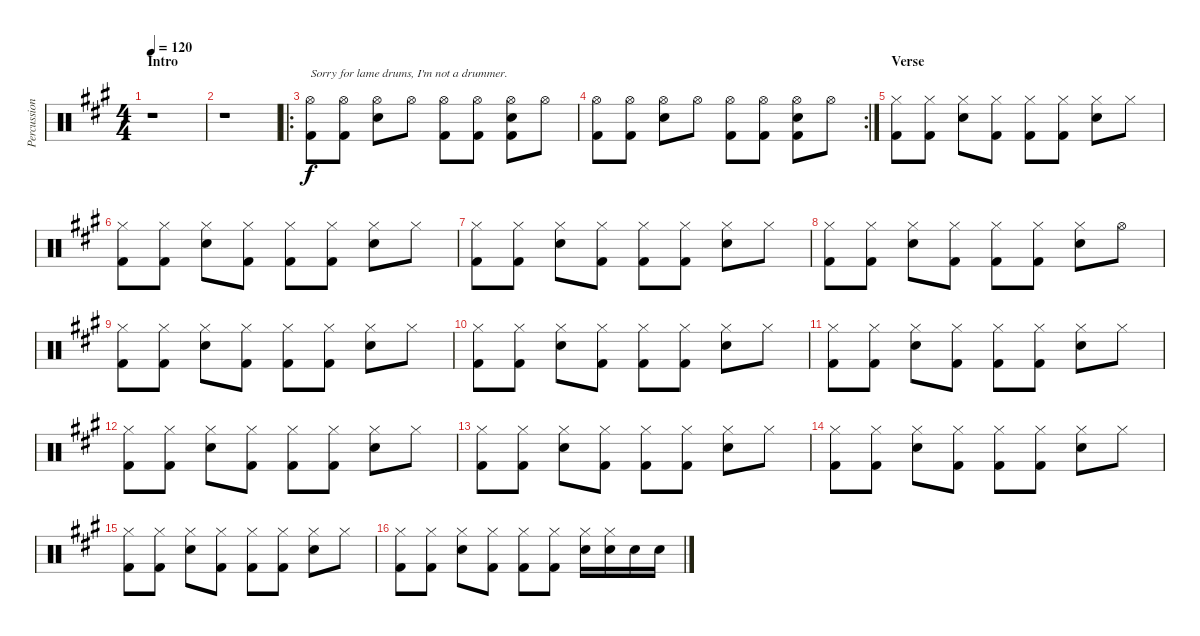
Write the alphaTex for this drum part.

\track ("Percussion" "Percussion") {instrument percussion}
\staff {score}
\articulation defaults
\ts (4 4)
\section ("" "Intro")
\tempo 120
\clef neutral
\ks a
r.1{dy f} |
r.1 |
\ro
("Hi-Hat (open)" "Kick (hit) 2").8{txt "Sorry for lame drums, I'm not a drummer."} ("Hi-Hat (open)" "Kick (hit) 2").8 ("Hi-Hat (open)" "Snare (hit) 2").8 "Hi-Hat (open)".8 ("Hi-Hat (open)" "Kick (hit) 2").8 ("Hi-Hat (open)" "Kick (hit) 2").8 ("Hi-Hat (open)" "Snare (hit) 2" "Kick (hit) 2").8 "Hi-Hat (open)".8 |
\rc 2
("Hi-Hat (open)" "Kick (hit) 2").8 ("Hi-Hat (open)" "Kick (hit) 2").8 ("Hi-Hat (open)" "Snare (hit) 2").8 "Hi-Hat (open)".8 ("Hi-Hat (open)" "Kick (hit) 2").8 ("Hi-Hat (open)" "Kick (hit) 2").8 ("Hi-Hat (open)" "Snare (hit) 2" "Kick (hit) 2").8 "Hi-Hat (open)".8 |
\section ("" "Verse")
("Hi-Hat (closed)" "Kick (hit) 2").8 ("Hi-Hat (closed)" "Kick (hit) 2").8 ("Hi-Hat (closed)" "Snare (hit) 2").8 ("Hi-Hat (closed)" "Kick (hit) 2").8 ("Hi-Hat (closed)" "Kick (hit) 2").8 ("Hi-Hat (closed)" "Kick (hit) 2").8 ("Hi-Hat (closed)" "Snare (hit) 2").8 "Hi-Hat (closed)".8 |
("Hi-Hat (closed)" "Kick (hit) 2").8 ("Hi-Hat (closed)" "Kick (hit) 2").8 ("Hi-Hat (closed)" "Snare (hit) 2").8 ("Hi-Hat (closed)" "Kick (hit) 2").8 ("Hi-Hat (closed)" "Kick (hit) 2").8 ("Hi-Hat (closed)" "Kick (hit) 2").8 ("Hi-Hat (closed)" "Snare (hit) 2").8 "Hi-Hat (closed)".8 |
("Hi-Hat (closed)" "Kick (hit) 2").8 ("Hi-Hat (closed)" "Kick (hit) 2").8 ("Hi-Hat (closed)" "Snare (hit) 2").8 ("Hi-Hat (closed)" "Kick (hit) 2").8 ("Hi-Hat (closed)" "Kick (hit) 2").8 ("Hi-Hat (closed)" "Kick (hit) 2").8 ("Hi-Hat (closed)" "Snare (hit) 2").8 "Hi-Hat (closed)".8 |
("Hi-Hat (closed)" "Kick (hit) 2").8 ("Hi-Hat (closed)" "Kick (hit) 2").8 ("Hi-Hat (closed)" "Snare (hit) 2").8 ("Hi-Hat (closed)" "Kick (hit) 2").8 ("Hi-Hat (closed)" "Kick (hit) 2").8 ("Hi-Hat (closed)" "Kick (hit) 2").8 ("Hi-Hat (closed)" "Snare (hit) 2").8 "Hi-Hat (open)".8 |
("Hi-Hat (closed)" "Kick (hit) 2").8 ("Hi-Hat (closed)" "Kick (hit) 2").8 ("Hi-Hat (closed)" "Snare (hit) 2").8 ("Hi-Hat (closed)" "Kick (hit) 2").8 ("Hi-Hat (closed)" "Kick (hit) 2").8 ("Hi-Hat (closed)" "Kick (hit) 2").8 ("Hi-Hat (closed)" "Snare (hit) 2").8 "Hi-Hat (closed)".8 |
("Hi-Hat (closed)" "Kick (hit) 2").8 ("Hi-Hat (closed)" "Kick (hit) 2").8 ("Hi-Hat (closed)" "Snare (hit) 2").8 ("Hi-Hat (closed)" "Kick (hit) 2").8 ("Hi-Hat (closed)" "Kick (hit) 2").8 ("Hi-Hat (closed)" "Kick (hit) 2").8 ("Hi-Hat (closed)" "Snare (hit) 2").8 "Hi-Hat (closed)".8 |
("Hi-Hat (closed)" "Kick (hit) 2").8 ("Hi-Hat (closed)" "Kick (hit) 2").8 ("Hi-Hat (closed)" "Snare (hit) 2").8 ("Hi-Hat (closed)" "Kick (hit) 2").8 ("Hi-Hat (closed)" "Kick (hit) 2").8 ("Hi-Hat (closed)" "Kick (hit) 2").8 ("Hi-Hat (closed)" "Snare (hit) 2").8 "Hi-Hat (closed)".8 |
("Hi-Hat (closed)" "Kick (hit) 2").8 ("Hi-Hat (closed)" "Kick (hit) 2").8 ("Hi-Hat (closed)" "Snare (hit) 2").8 ("Hi-Hat (closed)" "Kick (hit) 2").8 ("Hi-Hat (closed)" "Kick (hit) 2").8 ("Hi-Hat (closed)" "Kick (hit) 2").8 ("Hi-Hat (closed)" "Snare (hit) 2").8 "Hi-Hat (closed)".8 |
("Hi-Hat (closed)" "Kick (hit) 2").8 ("Hi-Hat (closed)" "Kick (hit) 2").8 ("Hi-Hat (closed)" "Snare (hit) 2").8 ("Hi-Hat (closed)" "Kick (hit) 2").8 ("Hi-Hat (closed)" "Kick (hit) 2").8 ("Hi-Hat (closed)" "Kick (hit) 2").8 ("Hi-Hat (closed)" "Snare (hit) 2").8 "Hi-Hat (closed)".8 |
("Hi-Hat (closed)" "Kick (hit) 2").8 ("Hi-Hat (closed)" "Kick (hit) 2").8 ("Hi-Hat (closed)" "Snare (hit) 2").8 ("Hi-Hat (closed)" "Kick (hit) 2").8 ("Hi-Hat (closed)" "Kick (hit) 2").8 ("Hi-Hat (closed)" "Kick (hit) 2").8 ("Hi-Hat (closed)" "Snare (hit) 2").8 "Hi-Hat (closed)".8 |
("Hi-Hat (closed)" "Kick (hit) 2").8 ("Hi-Hat (closed)" "Kick (hit) 2").8 ("Hi-Hat (closed)" "Snare (hit) 2").8 ("Hi-Hat (closed)" "Kick (hit) 2").8 ("Hi-Hat (closed)" "Kick (hit) 2").8 ("Hi-Hat (closed)" "Kick (hit) 2").8 ("Hi-Hat (closed)" "Snare (hit) 2").8 "Hi-Hat (closed)".8 |
("Hi-Hat (closed)" "Kick (hit) 2").8 ("Hi-Hat (closed)" "Kick (hit) 2").8 ("Hi-Hat (closed)" "Snare (hit) 2").8 ("Hi-Hat (closed)" "Kick (hit) 2").8 ("Hi-Hat (closed)" "Kick (hit) 2").8 ("Hi-Hat (closed)" "Kick (hit) 2").8 ("Hi-Hat (closed)" "Snare (hit) 2").16 ("Hi-Hat (closed)" "Snare (hit) 2").16 "Snare (hit) 2".16 "Snare (hit) 2".16
